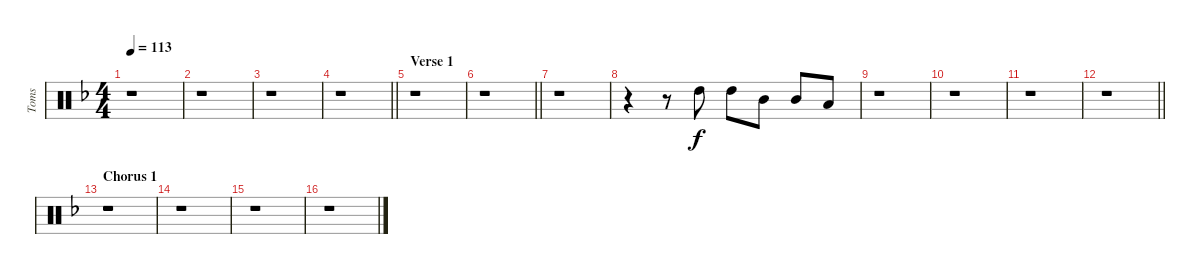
\track ("Toms" "Toms") {instrument percussion}
\staff {score}
\articulation defaults
\ts (4 4)
\tempo 113
\clef neutral
\ks dminor
r.1{dy f} |
r.1 |
r.1 |
\barLineRight lightlight
r.1 |
\section ("" "Verse 1")
r.1 |
\barLineRight lightlight
r.1 |
r.1 |
r.4 r.8 "High Tom (hit)".8 "High Tom (hit)".8 "Mid Tom (hit)".8 "Mid Tom (hit)".8 "Low Tom (hit)".8 |
r.1 |
r.1 |
r.1 |
\barLineRight lightlight
r.1 |
\section ("" "Chorus 1")
r.1 |
r.1 |
r.1 |
r.1
